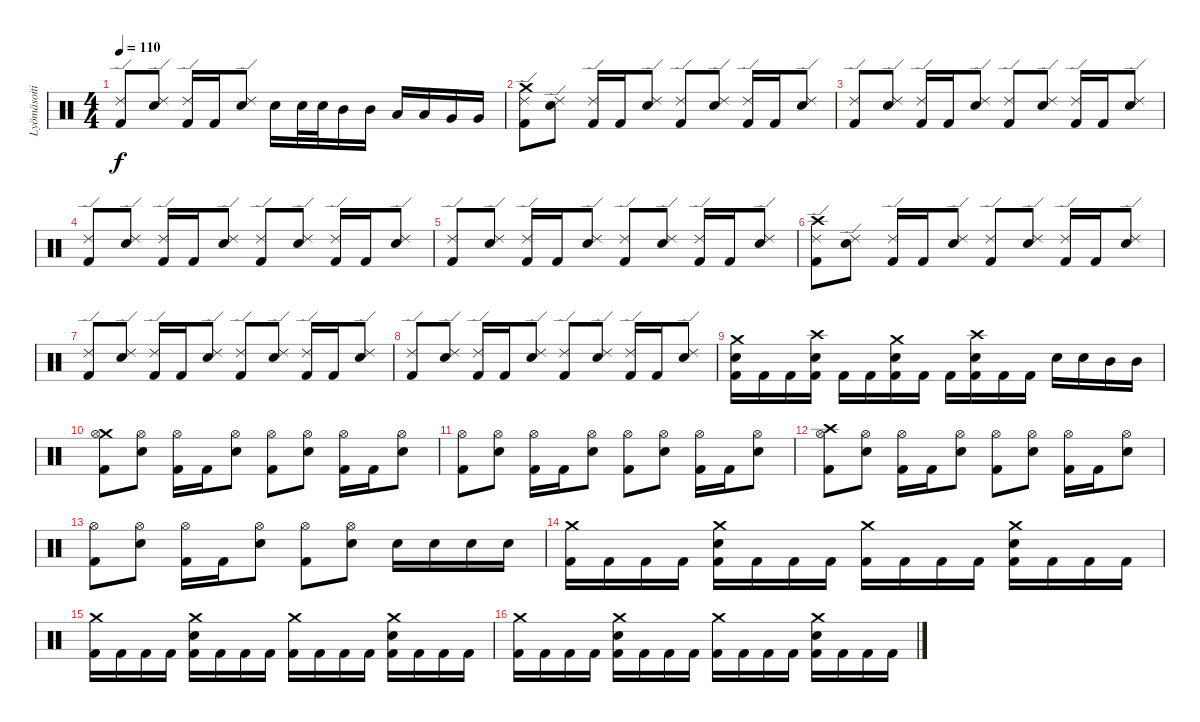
\track ("Lyömäsoitin" "Lyömäsoiti") {instrument percussion}
\staff {score}
\articulation defaults
\ts (4 4)
\tempo 110
\clef neutral
\ks c
("Kick (hit) 2" "Ride (edge) 2").8{dy f} ("Electric Snare (hit)" "Ride (edge) 2").8 ("Kick (hit) 2" "Ride (edge) 2").16 "Kick (hit) 2".16 ("Electric Snare (hit)" "Ride (edge) 2").8 "Electric Snare (hit)".16 "Electric Snare (hit)".32 "Electric Snare (hit)".32 "Mid Tom (hit)".16 "Mid Tom (hit)".16 "Low Tom (hit)".16 "Low Tom (hit)".16 "Very Low Tom (hit)".16 "Very Low Tom (hit)".16 |
("Crash medium (hit)" "Kick (hit) 2" "Ride (edge) 2").8 ("Electric Snare (hit)" "Ride (edge) 2").8 ("Kick (hit) 2" "Ride (edge) 2").16 "Kick (hit) 2".16 ("Electric Snare (hit)" "Ride (edge) 2").8 ("Kick (hit) 2" "Ride (edge) 2").8 ("Electric Snare (hit)" "Ride (edge) 2").8 ("Kick (hit) 2" "Ride (edge) 2").16 "Kick (hit) 2".16 ("Electric Snare (hit)" "Ride (edge) 2").8 |
("Kick (hit) 2" "Ride (edge) 2").8 ("Electric Snare (hit)" "Ride (edge) 2").8 ("Kick (hit) 2" "Ride (edge) 2").16 "Kick (hit) 2".16 ("Electric Snare (hit)" "Ride (edge) 2").8 ("Kick (hit) 2" "Ride (edge) 2").8 ("Electric Snare (hit)" "Ride (edge) 2").8 ("Kick (hit) 2" "Ride (edge) 2").16 "Kick (hit) 2".16 ("Electric Snare (hit)" "Ride (edge) 2").8 |
("Kick (hit) 2" "Ride (edge) 2").8 ("Electric Snare (hit)" "Ride (edge) 2").8 ("Kick (hit) 2" "Ride (edge) 2").16 "Kick (hit) 2".16 ("Electric Snare (hit)" "Ride (edge) 2").8 ("Kick (hit) 2" "Ride (edge) 2").8 ("Electric Snare (hit)" "Ride (edge) 2").8 ("Kick (hit) 2" "Ride (edge) 2").16 "Kick (hit) 2".16 ("Electric Snare (hit)" "Ride (edge) 2").8 |
("Kick (hit) 2" "Ride (edge) 2").8 ("Electric Snare (hit)" "Ride (edge) 2").8 ("Kick (hit) 2" "Ride (edge) 2").16 "Kick (hit) 2".16 ("Electric Snare (hit)" "Ride (edge) 2").8 ("Kick (hit) 2" "Ride (edge) 2").8 ("Electric Snare (hit)" "Ride (edge) 2").8 ("Kick (hit) 2" "Ride (edge) 2").16 "Kick (hit) 2".16 ("Electric Snare (hit)" "Ride (edge) 2").8 |
("Crash high (hit)" "Kick (hit) 2" "Ride (edge) 2").8 ("Electric Snare (hit)" "Ride (edge) 2").8 ("Kick (hit) 2" "Ride (edge) 2").16 "Kick (hit) 2".16 ("Electric Snare (hit)" "Ride (edge) 2").8 ("Kick (hit) 2" "Ride (edge) 2").8 ("Electric Snare (hit)" "Ride (edge) 2").8 ("Kick (hit) 2" "Ride (edge) 2").16 "Kick (hit) 2".16 ("Electric Snare (hit)" "Ride (edge) 2").8 |
("Kick (hit) 2" "Ride (edge) 2").8 ("Electric Snare (hit)" "Ride (edge) 2").8 ("Kick (hit) 2" "Ride (edge) 2").16 "Kick (hit) 2".16 ("Electric Snare (hit)" "Ride (edge) 2").8 ("Kick (hit) 2" "Ride (edge) 2").8 ("Electric Snare (hit)" "Ride (edge) 2").8 ("Kick (hit) 2" "Ride (edge) 2").16 "Kick (hit) 2".16 ("Electric Snare (hit)" "Ride (edge) 2").8 |
("Kick (hit) 2" "Ride (edge) 2").8 ("Electric Snare (hit)" "Ride (edge) 2").8 ("Kick (hit) 2" "Ride (edge) 2").16 "Kick (hit) 2".16 ("Electric Snare (hit)" "Ride (edge) 2").8 ("Kick (hit) 2" "Ride (edge) 2").8 ("Electric Snare (hit)" "Ride (edge) 2").8 ("Kick (hit) 2" "Ride (edge) 2").16 "Kick (hit) 2".16 ("Electric Snare (hit)" "Ride (edge) 2").8 |
("Crash medium (hit)" "Electric Snare (hit)" "Kick (hit) 2").16 "Kick (hit) 2".16 "Kick (hit) 2".16 ("Crash high (hit)" "Electric Snare (hit)" "Kick (hit) 2").16 "Kick (hit) 2".16 "Kick (hit) 2".16 ("Crash medium (hit)" "Electric Snare (hit)" "Kick (hit) 2").16 "Kick (hit) 2".16 "Kick (hit) 2".16 ("Crash high (hit)" "Electric Snare (hit)" "Kick (hit) 2").16 "Kick (hit) 2".16 "Kick (hit) 2".16 "Electric Snare (hit)".16 "Electric Snare (hit)".16 "Mid Tom (hit)".16 "Mid Tom (hit)".16 |
("Crash medium (hit)" "Kick (hit) 2" "Hi-Hat (open)").8 ("Electric Snare (hit)" "Hi-Hat (open)").8 ("Kick (hit) 2" "Hi-Hat (open)").16 "Kick (hit) 2".16 ("Electric Snare (hit)" "Hi-Hat (open)").8 ("Kick (hit) 2" "Hi-Hat (open)").8 ("Electric Snare (hit)" "Hi-Hat (open)").8 ("Kick (hit) 2" "Hi-Hat (open)").16 "Kick (hit) 2".16 ("Electric Snare (hit)" "Hi-Hat (open)").8 |
("Kick (hit) 2" "Hi-Hat (open)").8 ("Electric Snare (hit)" "Hi-Hat (open)").8 ("Kick (hit) 2" "Hi-Hat (open)").16 "Kick (hit) 2".16 ("Electric Snare (hit)" "Hi-Hat (open)").8 ("Kick (hit) 2" "Hi-Hat (open)").8 ("Electric Snare (hit)" "Hi-Hat (open)").8 ("Kick (hit) 2" "Hi-Hat (open)").16 "Kick (hit) 2".16 ("Electric Snare (hit)" "Hi-Hat (open)").8 |
("Crash high (hit)" "Kick (hit) 2" "Hi-Hat (open)").8 ("Electric Snare (hit)" "Hi-Hat (open)").8 ("Kick (hit) 2" "Hi-Hat (open)").16 "Kick (hit) 2".16 ("Electric Snare (hit)" "Hi-Hat (open)").8 ("Kick (hit) 2" "Hi-Hat (open)").8 ("Electric Snare (hit)" "Hi-Hat (open)").8 ("Kick (hit) 2" "Hi-Hat (open)").16 "Kick (hit) 2".16 ("Electric Snare (hit)" "Hi-Hat (open)").8 |
("Kick (hit) 2" "Hi-Hat (open)").8 ("Electric Snare (hit)" "Hi-Hat (open)").8 ("Kick (hit) 2" "Hi-Hat (open)").16 "Kick (hit) 2".16 ("Electric Snare (hit)" "Hi-Hat (open)").8 ("Kick (hit) 2" "Hi-Hat (open)").8 ("Electric Snare (hit)" "Hi-Hat (open)").8 "Electric Snare (hit)".16 "Electric Snare (hit)".16 "Electric Snare (hit)".16 "Electric Snare (hit)".16 |
("Crash medium (hit)" "Kick (hit) 2").16 "Kick (hit) 2".16 "Kick (hit) 2".16 "Kick (hit) 2".16 ("Electric Snare (hit)" "Crash medium (hit)" "Kick (hit) 2").16 "Kick (hit) 2".16 "Kick (hit) 2".16 "Kick (hit) 2".16 ("Crash medium (hit)" "Kick (hit) 2").16 "Kick (hit) 2".16 "Kick (hit) 2".16 "Kick (hit) 2".16 ("Electric Snare (hit)" "Crash medium (hit)" "Kick (hit) 2").16 "Kick (hit) 2".16 "Kick (hit) 2".16 "Kick (hit) 2".16 |
("Crash medium (hit)" "Kick (hit) 2").16 "Kick (hit) 2".16 "Kick (hit) 2".16 "Kick (hit) 2".16 ("Electric Snare (hit)" "Crash medium (hit)" "Kick (hit) 2").16 "Kick (hit) 2".16 "Kick (hit) 2".16 "Kick (hit) 2".16 ("Crash medium (hit)" "Kick (hit) 2").16 "Kick (hit) 2".16 "Kick (hit) 2".16 "Kick (hit) 2".16 ("Electric Snare (hit)" "Crash medium (hit)" "Kick (hit) 2").16 "Kick (hit) 2".16 "Kick (hit) 2".16 "Kick (hit) 2".16 |
("Crash medium (hit)" "Kick (hit) 2").16 "Kick (hit) 2".16 "Kick (hit) 2".16 "Kick (hit) 2".16 ("Electric Snare (hit)" "Crash medium (hit)" "Kick (hit) 2").16 "Kick (hit) 2".16 "Kick (hit) 2".16 "Kick (hit) 2".16 ("Crash medium (hit)" "Kick (hit) 2").16 "Kick (hit) 2".16 "Kick (hit) 2".16 "Kick (hit) 2".16 ("Electric Snare (hit)" "Crash medium (hit)" "Kick (hit) 2").16 "Kick (hit) 2".16 "Kick (hit) 2".16 "Kick (hit) 2".16
